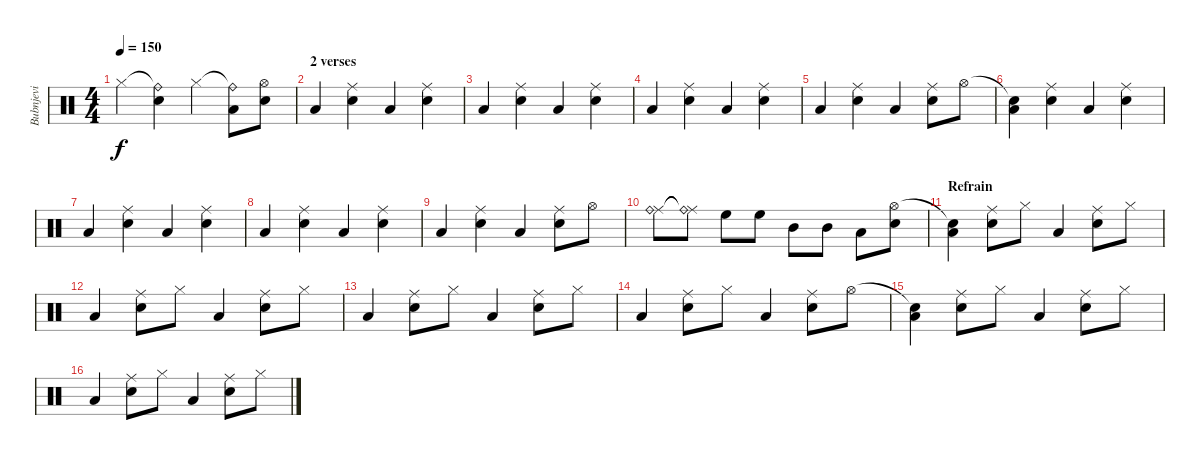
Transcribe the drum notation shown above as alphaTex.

\track ("Bubnjevi" "Bubnjevi") {instrument percussion}
\staff {score}
\articulation defaults
\ts (4 4)
\tempo 150
\clef neutral
\ks c "Hi-Hat (closed)".4{dy f}
("Ride (bell)"{t} "Snare (hit) 2").4 "Hi-Hat (closed)".4 ("Ride (bell)"{t} "Low Tom (hit)").8 ("Hi-Hat (open)" "Snare (hit) 2").8 |
\section ("" "2 verses")
"Low Tom (hit)".4 ("Ride (middle)" "Snare (hit) 2").4 "Low Tom (hit)".4 ("Ride (middle)" "Snare (hit) 2").4 |
"Low Tom (hit)".4 ("Ride (middle)" "Snare (hit) 2").4 "Low Tom (hit)".4 ("Ride (middle)" "Snare (hit) 2").4 |
"Low Tom (hit)".4 ("Ride (middle)" "Snare (hit) 2").4 "Low Tom (hit)".4 ("Ride (middle)" "Snare (hit) 2").4 |
"Low Tom (hit)".4 ("Ride (middle)" "Snare (hit) 2").4 "Low Tom (hit)".4 ("Ride (middle)" "Snare (hit) 2").8 "Hi-Hat (open)".8 |
("Snare (hit)"{t} "Low Tom (hit)").4 ("Ride (middle)" "Snare (hit) 2").4 "Low Tom (hit)".4 ("Ride (middle)" "Snare (hit) 2").4 |
"Low Tom (hit)".4 ("Ride (middle)" "Snare (hit) 2").4 "Low Tom (hit)".4 ("Ride (middle)" "Snare (hit) 2").4 |
"Low Tom (hit)".4 ("Ride (middle)" "Snare (hit) 2").4 "Low Tom (hit)".4 ("Ride (middle)" "Snare (hit) 2").4 |
"Low Tom (hit)".4 ("Ride (middle)" "Snare (hit) 2").4 "Low Tom (hit)".4 ("Ride (middle)" "Snare (hit) 2").8 "Hi-Hat (open)".8 |
("Ride (middle)" "Ride (bell)").8 ("Ride (middle)"{t} "Ride (bell)"{t}).8 "High Floor Tom (hit)".8 "High Floor Tom (hit)".8 "Mid Tom (hit)".8 "Mid Tom (hit)".8 "Low Tom (hit)".8 ("Hi-Hat (open)" "Snare (hit) 2").8 |
\section ("" "Refrain")
("Snare (hit)"{t} "Low Tom (hit)").4 ("Ride (middle)" "Snare (hit) 2").8 "Hi-Hat (closed)".8 "Low Tom (hit)".4 ("Ride (middle)" "Snare (hit) 2").8 "Hi-Hat (closed)".8 |
"Low Tom (hit)".4 ("Ride (middle)" "Snare (hit) 2").8 "Hi-Hat (closed)".8 "Low Tom (hit)".4 ("Ride (middle)" "Snare (hit) 2").8 "Hi-Hat (closed)".8 |
"Low Tom (hit)".4 ("Ride (middle)" "Snare (hit) 2").8 "Hi-Hat (closed)".8 "Low Tom (hit)".4 ("Ride (middle)" "Snare (hit) 2").8 "Hi-Hat (closed)".8 |
"Low Tom (hit)".4 ("Ride (middle)" "Snare (hit) 2").8 "Hi-Hat (closed)".8 "Low Tom (hit)".4 ("Ride (middle)" "Snare (hit) 2").8 "Hi-Hat (open)".8 |
("Snare (hit)"{t} "Low Tom (hit)").4 ("Ride (middle)" "Snare (hit) 2").8 "Hi-Hat (closed)".8 "Low Tom (hit)".4 ("Ride (middle)" "Snare (hit) 2").8 "Hi-Hat (closed)".8 |
"Low Tom (hit)".4 ("Ride (middle)" "Snare (hit) 2").8 "Hi-Hat (closed)".8 "Low Tom (hit)".4 ("Ride (middle)" "Snare (hit) 2").8 "Hi-Hat (closed)".8
